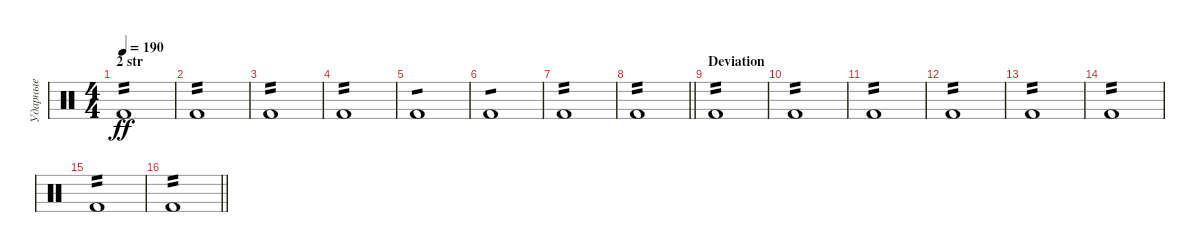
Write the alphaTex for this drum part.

\track ("Ударные" "Ударные") {instrument percussion}
\staff {score}
\articulation defaults
\ts (4 4)
\section ("" "2 str")
\tempo 190
\clef neutral
\ks c "Kick (hit) 2".1{tp 2 dy ff}
|
"Kick (hit) 2".1{tp 2} |
"Kick (hit) 2".1{tp 2} |
"Kick (hit) 2".1{tp 2} |
"Kick (hit) 2".1{tp 1} |
"Kick (hit) 2".1{tp 1} |
"Kick (hit) 2".1{tp 2} |
\barLineRight lightlight "Kick (hit) 2".1{tp 2}
|
\section ("" "Deviation")
"Kick (hit) 2".1{tp 2} |
"Kick (hit) 2".1{tp 2} |
"Kick (hit) 2".1{tp 2} |
"Kick (hit) 2".1{tp 2} |
"Kick (hit) 2".1{tp 2} |
"Kick (hit) 2".1{tp 2} |
"Kick (hit) 2".1{tp 2} |
\barLineRight lightlight "Kick (hit) 2".1{tp 2}
